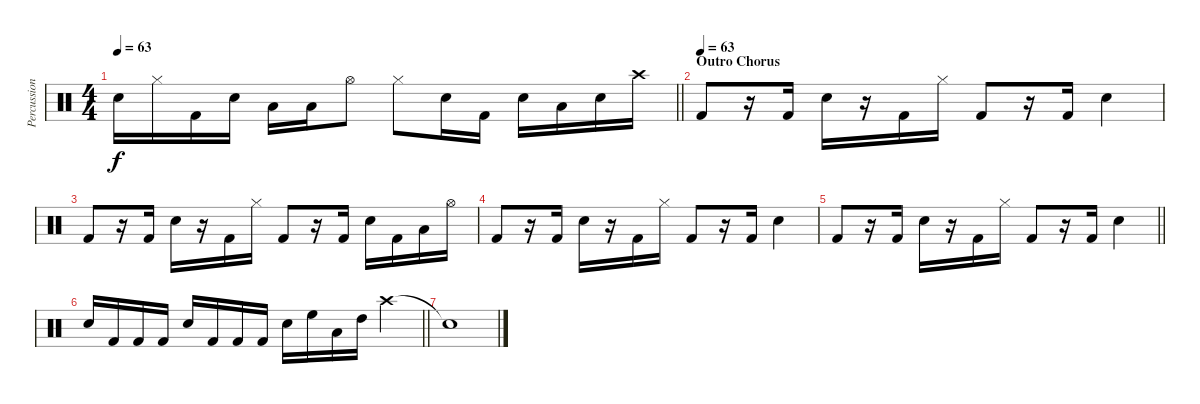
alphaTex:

\track ("Percussion" "Percussion") {instrument percussion}
\staff {score}
\articulation defaults
\ts (4 4)
\tempo 63
\clef neutral
\barLineRight lightlight
\ks c "Snare (hit) 2".16{dy f} "Hi-Hat (closed)".16 "Kick (hit) 2".16 "Snare (hit) 2".16 "Low Tom (hit)".16 "Low Tom (hit)".16 "Hi-Hat (open)".8 "Hi-Hat (closed)".8 "Snare (hit) 2".16 "Kick (hit) 2".16 "Snare (hit) 2".16 "Low Tom (hit)".16 "Snare (hit) 2".16 "Crash high (hit)".16
|
\section ("" "Outro Chorus")
\tempo (63)
"Kick (hit) 2".8 r.16 "Kick (hit) 2".16 "Snare (hit) 2".16 r.16 "Kick (hit) 2".16 "Hi-Hat (closed)".16 "Kick (hit) 2".8 r.16 "Kick (hit) 2".16 "Snare (hit) 2".4 |
"Kick (hit) 2".8 r.16 "Kick (hit) 2".16 "Snare (hit) 2".16 r.16 "Kick (hit) 2".16 "Hi-Hat (closed)".16 "Kick (hit) 2".8 r.16 "Kick (hit) 2".16 "Snare (hit) 2".16 "Kick (hit) 2".16 "Low Tom (hit)".16 "Hi-Hat (open)".16 |
"Kick (hit) 2".8 r.16 "Kick (hit) 2".16 "Snare (hit) 2".16 r.16 "Kick (hit) 2".16 "Hi-Hat (closed)".16 "Kick (hit) 2".8 r.16 "Kick (hit) 2".16 "Snare (hit) 2".4 |
\barLineRight lightlight "Kick (hit) 2".8
r.16 "Kick (hit) 2".16 "Snare (hit) 2".16 r.16 "Kick (hit) 2".16 "Hi-Hat (closed)".16 "Kick (hit) 2".8 r.16 "Kick (hit) 2".16 "Snare (hit) 2".4 |
\barLineRight lightlight "Snare (hit) 2".16 "Kick (hit) 2".16 "Kick (hit) 2".16 "Kick (hit) 2".16 "Snare (hit) 2".16 "Kick (hit) 2".16 "Kick (hit) 2".16 "Kick (hit) 2".16 "Snare (hit) 2".16 "High Floor Tom (hit)".16 "Low Tom (hit)".16 "High Tom (hit)".16 "Crash high (hit)".4
|
"Snare (hit)"{t}.1
